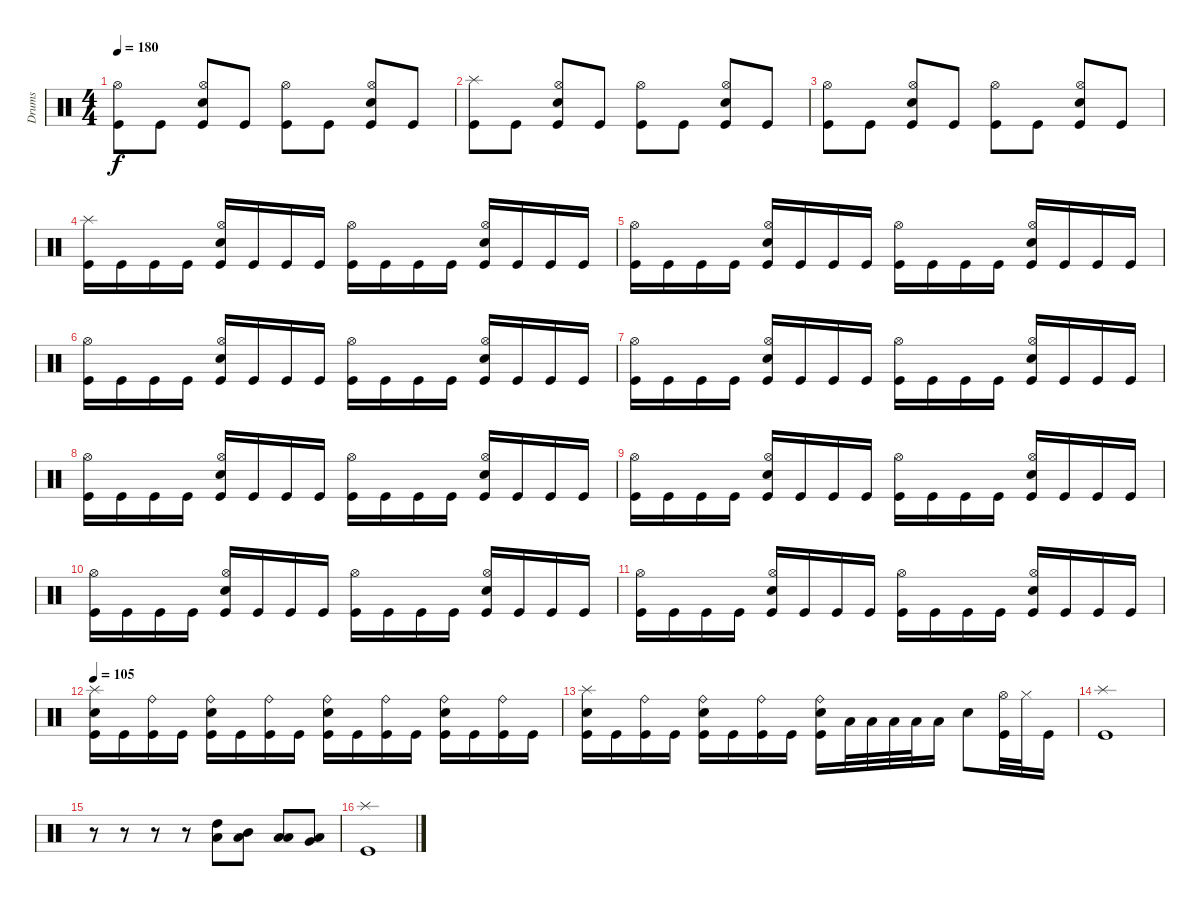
\track ("Drums" "Drums") {instrument percussion}
\staff {score}
\articulation defaults
\ts (4 4)
\tempo 180
\clef neutral
\ks c
("Kick (hit)" "Hi-Hat (open)").8{dy f} "Kick (hit)".8 ("Kick (hit)" "Electric Snare (hit)" "Hi-Hat (open)").8 "Kick (hit)".8 ("Kick (hit)" "Hi-Hat (open)").8 "Kick (hit)".8 ("Kick (hit)" "Electric Snare (hit)" "Hi-Hat (open)").8 "Kick (hit)".8 |
("Kick (hit)" "Splash (hit)").8 "Kick (hit)".8 ("Kick (hit)" "Electric Snare (hit)" "Hi-Hat (open)").8 "Kick (hit)".8 ("Kick (hit)" "Hi-Hat (open)").8 "Kick (hit)".8 ("Kick (hit)" "Electric Snare (hit)" "Hi-Hat (open)").8 "Kick (hit)".8 |
("Kick (hit)" "Hi-Hat (open)").8 "Kick (hit)".8 ("Kick (hit)" "Electric Snare (hit)" "Hi-Hat (open)").8 "Kick (hit)".8 ("Kick (hit)" "Hi-Hat (open)").8 "Kick (hit)".8 ("Kick (hit)" "Electric Snare (hit)" "Hi-Hat (open)").8 "Kick (hit)".8 |
("Kick (hit)" "Splash (hit)").16 "Kick (hit)".16 "Kick (hit)".16 "Kick (hit)".16 ("Kick (hit)" "Electric Snare (hit)" "Hi-Hat (open)").16 "Kick (hit)".16 "Kick (hit)".16 "Kick (hit)".16 ("Kick (hit)" "Hi-Hat (open)").16 "Kick (hit)".16 "Kick (hit)".16 "Kick (hit)".16 ("Kick (hit)" "Electric Snare (hit)" "Hi-Hat (open)").16 "Kick (hit)".16 "Kick (hit)".16 "Kick (hit)".16 |
("Kick (hit)" "Hi-Hat (open)").16 "Kick (hit)".16 "Kick (hit)".16 "Kick (hit)".16 ("Kick (hit)" "Electric Snare (hit)" "Hi-Hat (open)").16 "Kick (hit)".16 "Kick (hit)".16 "Kick (hit)".16 ("Kick (hit)" "Hi-Hat (open)").16 "Kick (hit)".16 "Kick (hit)".16 "Kick (hit)".16 ("Kick (hit)" "Electric Snare (hit)" "Hi-Hat (open)").16 "Kick (hit)".16 "Kick (hit)".16 "Kick (hit)".16 |
("Kick (hit)" "Hi-Hat (open)").16 "Kick (hit)".16 "Kick (hit)".16 "Kick (hit)".16 ("Kick (hit)" "Electric Snare (hit)" "Hi-Hat (open)").16 "Kick (hit)".16 "Kick (hit)".16 "Kick (hit)".16 ("Kick (hit)" "Hi-Hat (open)").16 "Kick (hit)".16 "Kick (hit)".16 "Kick (hit)".16 ("Kick (hit)" "Electric Snare (hit)" "Hi-Hat (open)").16 "Kick (hit)".16 "Kick (hit)".16 "Kick (hit)".16 |
("Kick (hit)" "Hi-Hat (open)").16 "Kick (hit)".16 "Kick (hit)".16 "Kick (hit)".16 ("Kick (hit)" "Electric Snare (hit)" "Hi-Hat (open)").16 "Kick (hit)".16 "Kick (hit)".16 "Kick (hit)".16 ("Kick (hit)" "Hi-Hat (open)").16 "Kick (hit)".16 "Kick (hit)".16 "Kick (hit)".16 ("Kick (hit)" "Electric Snare (hit)" "Hi-Hat (open)").16 "Kick (hit)".16 "Kick (hit)".16 "Kick (hit)".16 |
("Kick (hit)" "Hi-Hat (open)").16 "Kick (hit)".16 "Kick (hit)".16 "Kick (hit)".16 ("Kick (hit)" "Electric Snare (hit)" "Hi-Hat (open)").16 "Kick (hit)".16 "Kick (hit)".16 "Kick (hit)".16 ("Kick (hit)" "Hi-Hat (open)").16 "Kick (hit)".16 "Kick (hit)".16 "Kick (hit)".16 ("Kick (hit)" "Electric Snare (hit)" "Hi-Hat (open)").16 "Kick (hit)".16 "Kick (hit)".16 "Kick (hit)".16 |
("Kick (hit)" "Hi-Hat (open)").16 "Kick (hit)".16 "Kick (hit)".16 "Kick (hit)".16 ("Kick (hit)" "Electric Snare (hit)" "Hi-Hat (open)").16 "Kick (hit)".16 "Kick (hit)".16 "Kick (hit)".16 ("Kick (hit)" "Hi-Hat (open)").16 "Kick (hit)".16 "Kick (hit)".16 "Kick (hit)".16 ("Kick (hit)" "Electric Snare (hit)" "Hi-Hat (open)").16 "Kick (hit)".16 "Kick (hit)".16 "Kick (hit)".16 |
("Kick (hit)" "Hi-Hat (open)").16 "Kick (hit)".16 "Kick (hit)".16 "Kick (hit)".16 ("Kick (hit)" "Electric Snare (hit)" "Hi-Hat (open)").16 "Kick (hit)".16 "Kick (hit)".16 "Kick (hit)".16 ("Kick (hit)" "Hi-Hat (open)").16 "Kick (hit)".16 "Kick (hit)".16 "Kick (hit)".16 ("Kick (hit)" "Electric Snare (hit)" "Hi-Hat (open)").16 "Kick (hit)".16 "Kick (hit)".16 "Kick (hit)".16 |
("Kick (hit)" "Hi-Hat (open)").16 "Kick (hit)".16 "Kick (hit)".16 "Kick (hit)".16 ("Kick (hit)" "Electric Snare (hit)" "Hi-Hat (open)").16 "Kick (hit)".16 "Kick (hit)".16 "Kick (hit)".16 ("Kick (hit)" "Hi-Hat (open)").16 "Kick (hit)".16 "Kick (hit)".16 "Kick (hit)".16 ("Kick (hit)" "Electric Snare (hit)" "Hi-Hat (open)").16 "Kick (hit)".16 "Kick (hit)".16 "Kick (hit)".16 |
\tempo 105
("Kick (hit)" "Electric Snare (hit)" "Splash (hit)").16 "Kick (hit)".16 ("Kick (hit)" "Ride (bell)").16 "Kick (hit)".16 ("Kick (hit)" "Electric Snare (hit)" "Ride (bell)").16 "Kick (hit)".16 ("Kick (hit)" "Ride (bell)").16 "Kick (hit)".16 ("Kick (hit)" "Electric Snare (hit)" "Ride (bell)").16 "Kick (hit)".16 ("Kick (hit)" "Ride (bell)").16 "Kick (hit)".16 ("Kick (hit)" "Electric Snare (hit)" "Ride (bell)").16 "Kick (hit)".16 ("Kick (hit)" "Ride (bell)").16 "Kick (hit)".16 |
("Kick (hit)" "Electric Snare (hit)" "Splash (hit)").16 "Kick (hit)".16 ("Kick (hit)" "Ride (bell)").16 "Kick (hit)".16 ("Kick (hit)" "Electric Snare (hit)" "Ride (bell)").16 "Kick (hit)".16 ("Kick (hit)" "Ride (bell)").16 "Kick (hit)".16 ("Kick (hit)" "Electric Snare (hit)" "Ride (bell)").16 "Low Tom (hit)".32 "Low Tom (hit)".32 "Low Tom (hit)".32 "Low Tom (hit)".32 "Low Tom (hit)".16 "Electric Snare (hit)".8 ("Kick (hit)" "Hi-Hat (open)").32 "Hi-Hat (closed)".32 "Kick (hit)".16 |
("Kick (hit)" "Splash (hit)").1 |
r.8 r.8 r.8 r.8 ("Low Floor Tom (hit)" "High Tom (hit)").8 ("Low Floor Tom (hit)" "Mid Tom (hit)").8 ("Low Floor Tom (hit)" "Low Tom (hit)").8 ("Low Floor Tom (hit)" "Very Low Tom (hit)").8 |
("Kick (hit)" "Splash (hit)").1
